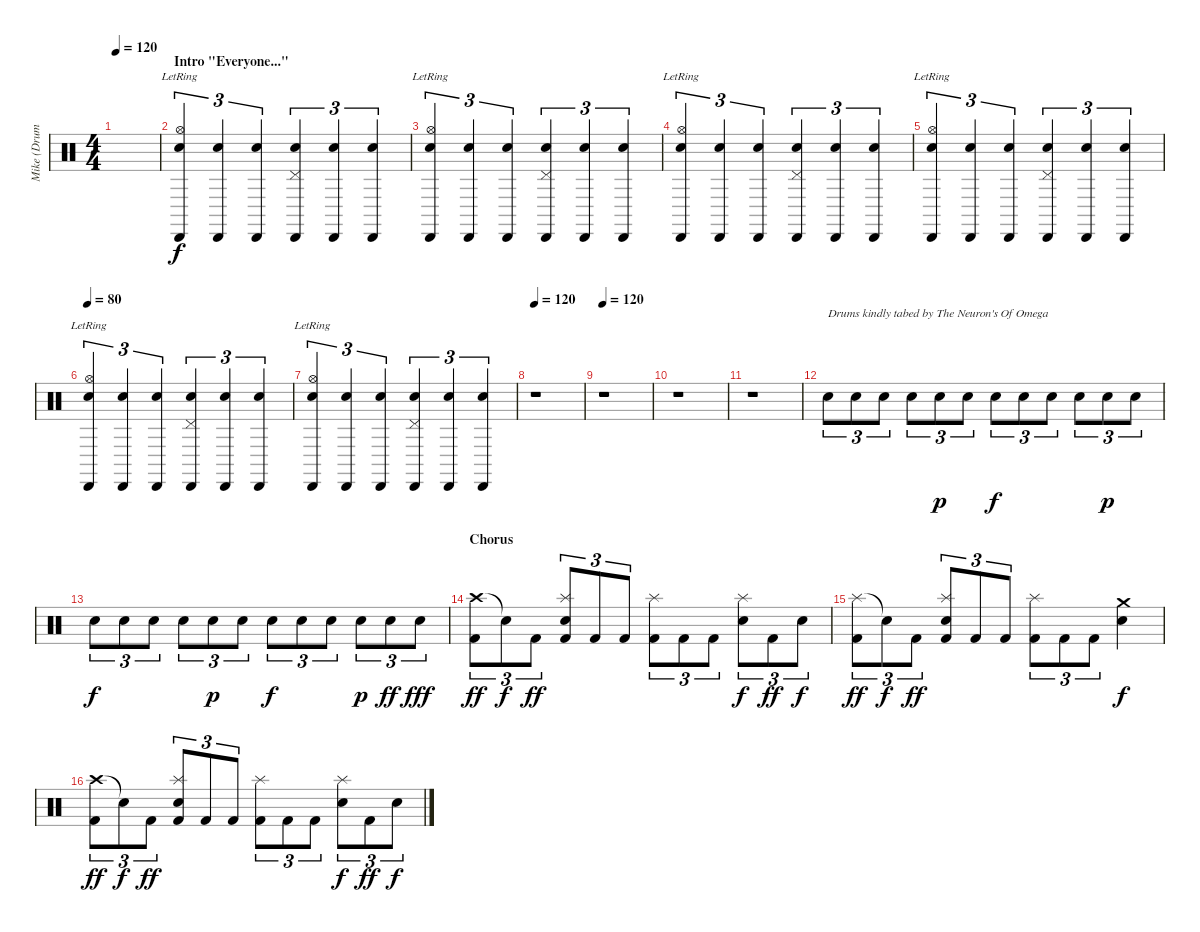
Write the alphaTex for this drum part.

\track ("Mike (Drums)" "Mike (Drum") {instrument percussion}
\staff {score}
\articulation defaults
\ts (4 4)
\tempo 120
\clef neutral
\ks c
|
\section ("" "Intro \"Everyone...\"")
("Hi-Hat (open)"{lr} "Snare (hit) 2" "Cabasa (hit)").4{tu (3 2) volume 10} ("Snare (hit) 2" "Cabasa (hit)").4{tu (3 2)} ("Snare (hit) 2" "Cabasa (hit)").4{tu (3 2)} ("Pedal Hi-Hat (hit)" "Snare (hit) 2" "Cabasa (hit)").4{tu (3 2)} ("Snare (hit) 2" "Cabasa (hit)").4{tu (3 2)} ("Snare (hit) 2" "Cabasa (hit)").4{tu (3 2)} |
("Hi-Hat (open)"{lr} "Snare (hit) 2" "Cabasa (hit)").4{tu (3 2)} ("Snare (hit) 2" "Cabasa (hit)").4{tu (3 2)} ("Snare (hit) 2" "Cabasa (hit)").4{tu (3 2)} ("Pedal Hi-Hat (hit)" "Snare (hit) 2" "Cabasa (hit)").4{tu (3 2)} ("Snare (hit) 2" "Cabasa (hit)").4{tu (3 2)} ("Snare (hit) 2" "Cabasa (hit)").4{tu (3 2)} |
("Hi-Hat (open)"{lr} "Snare (hit) 2" "Cabasa (hit)").4{tu (3 2)} ("Snare (hit) 2" "Cabasa (hit)").4{tu (3 2)} ("Snare (hit) 2" "Cabasa (hit)").4{tu (3 2)} ("Pedal Hi-Hat (hit)" "Snare (hit) 2" "Cabasa (hit)").4{tu (3 2)} ("Snare (hit) 2" "Cabasa (hit)").4{tu (3 2)} ("Snare (hit) 2" "Cabasa (hit)").4{tu (3 2)} |
("Hi-Hat (open)"{lr} "Snare (hit) 2" "Cabasa (hit)").4{tu (3 2)} ("Snare (hit) 2" "Cabasa (hit)").4{tu (3 2)} ("Snare (hit) 2" "Cabasa (hit)").4{tu (3 2)} ("Pedal Hi-Hat (hit)" "Snare (hit) 2" "Cabasa (hit)").4{tu (3 2)} ("Snare (hit) 2" "Cabasa (hit)").4{tu (3 2)} ("Snare (hit) 2" "Cabasa (hit)").4{tu (3 2)} |
\tempo 80
("Hi-Hat (open)"{lr} "Snare (hit) 2" "Cabasa (hit)").4{tu (3 2)} ("Snare (hit) 2" "Cabasa (hit)").4{tu (3 2)} ("Snare (hit) 2" "Cabasa (hit)").4{tu (3 2)} ("Pedal Hi-Hat (hit)" "Snare (hit) 2" "Cabasa (hit)").4{tu (3 2)} ("Snare (hit) 2" "Cabasa (hit)").4{tu (3 2)} ("Snare (hit) 2" "Cabasa (hit)").4{tu (3 2)} |
("Hi-Hat (open)"{lr} "Snare (hit) 2" "Cabasa (hit)").4{tu (3 2)} ("Snare (hit) 2" "Cabasa (hit)").4{tu (3 2)} ("Snare (hit) 2" "Cabasa (hit)").4{tu (3 2)} ("Pedal Hi-Hat (hit)" "Snare (hit) 2" "Cabasa (hit)").4{tu (3 2)} ("Snare (hit) 2" "Cabasa (hit)").4{tu (3 2)} ("Snare (hit) 2" "Cabasa (hit)").4{tu (3 2)} |
\tempo 120
r.1 |
\tempo 120
r.1 |
r.1 |
r.1 |
"Snare (hit) 2".8{tu (3 2) txt "Drums kindly tabed by The Neuron's Of Omega" dy f volume 13} "Snare (hit) 2".8{tu (3 2)} "Snare (hit) 2".8{tu (3 2)} "Snare (hit) 2".8{tu (3 2)} "Snare (hit) 2".8{tu (3 2) dy p} "Snare (hit) 2".8{tu (3 2)} "Snare (hit) 2".8{tu (3 2) dy f} "Snare (hit) 2".8{tu (3 2)} "Snare (hit) 2".8{tu (3 2)} "Snare (hit) 2".8{tu (3 2)} "Snare (hit) 2".8{tu (3 2) dy p} "Snare (hit) 2".8{tu (3 2)} |
"Snare (hit) 2".8{tu (3 2) dy f} "Snare (hit) 2".8{tu (3 2)} "Snare (hit) 2".8{tu (3 2)} "Snare (hit) 2".8{tu (3 2)} "Snare (hit) 2".8{tu (3 2) dy p} "Snare (hit) 2".8{tu (3 2)} "Snare (hit) 2".8{tu (3 2) dy f} "Snare (hit) 2".8{tu (3 2)} "Snare (hit) 2".8{tu (3 2)} "Snare (hit) 2".8{tu (3 2) dy p} "Snare (hit) 2".8{tu (3 2) dy ff} "Snare (hit) 2".8{tu (3 2) dy fff} |
\section ("" "Chorus")
("Crash high (hit)" "Kick (hit) 2").8{tu (3 2) dy ff} "Snare (hit)"{t}.8{tu (3 2) dy f} "Kick (hit) 2".8{tu (3 2) dy ff} ("Splash (hit)" "Electric Snare (hit)" "Kick (hit) 2").8{tu (3 2)} "Kick (hit) 2".8{tu (3 2)} "Kick (hit) 2".8{tu (3 2)} ("Splash (hit)" "Kick (hit) 2").8{tu (3 2)} "Kick (hit) 2".8{tu (3 2)} "Kick (hit) 2".8{tu (3 2)} ("Splash (hit)" "Electric Snare (hit)").8{tu (3 2) dy f} "Kick (hit) 2".8{tu (3 2) dy ff} "Snare (hit) 2".8{tu (3 2) dy f} |
("Splash (hit)" "Kick (hit) 2").8{tu (3 2) dy ff} "Snare (hit)"{t}.8{tu (3 2) dy f} "Kick (hit) 2".8{tu (3 2) dy ff} ("Splash (hit)" "Electric Snare (hit)" "Kick (hit) 2").8{tu (3 2)} "Kick (hit) 2".8{tu (3 2)} "Kick (hit) 2".8{tu (3 2)} ("Splash (hit)" "Kick (hit) 2").8{tu (3 2)} "Kick (hit) 2".8{tu (3 2)} "Kick (hit) 2".8{tu (3 2)} ("Crash medium (hit)" "Electric Snare (hit)").4{dy f} |
("Crash high (hit)" "Kick (hit) 2").8{tu (3 2) dy ff} "Snare (hit)"{t}.8{tu (3 2) dy f} "Kick (hit) 2".8{tu (3 2) dy ff} ("Splash (hit)" "Electric Snare (hit)" "Kick (hit) 2").8{tu (3 2)} "Kick (hit) 2".8{tu (3 2)} "Kick (hit) 2".8{tu (3 2)} ("Splash (hit)" "Kick (hit) 2").8{tu (3 2)} "Kick (hit) 2".8{tu (3 2)} "Kick (hit) 2".8{tu (3 2)} ("Splash (hit)" "Electric Snare (hit)").8{tu (3 2) dy f} "Kick (hit) 2".8{tu (3 2) dy ff} "Snare (hit) 2".8{tu (3 2) dy f}
